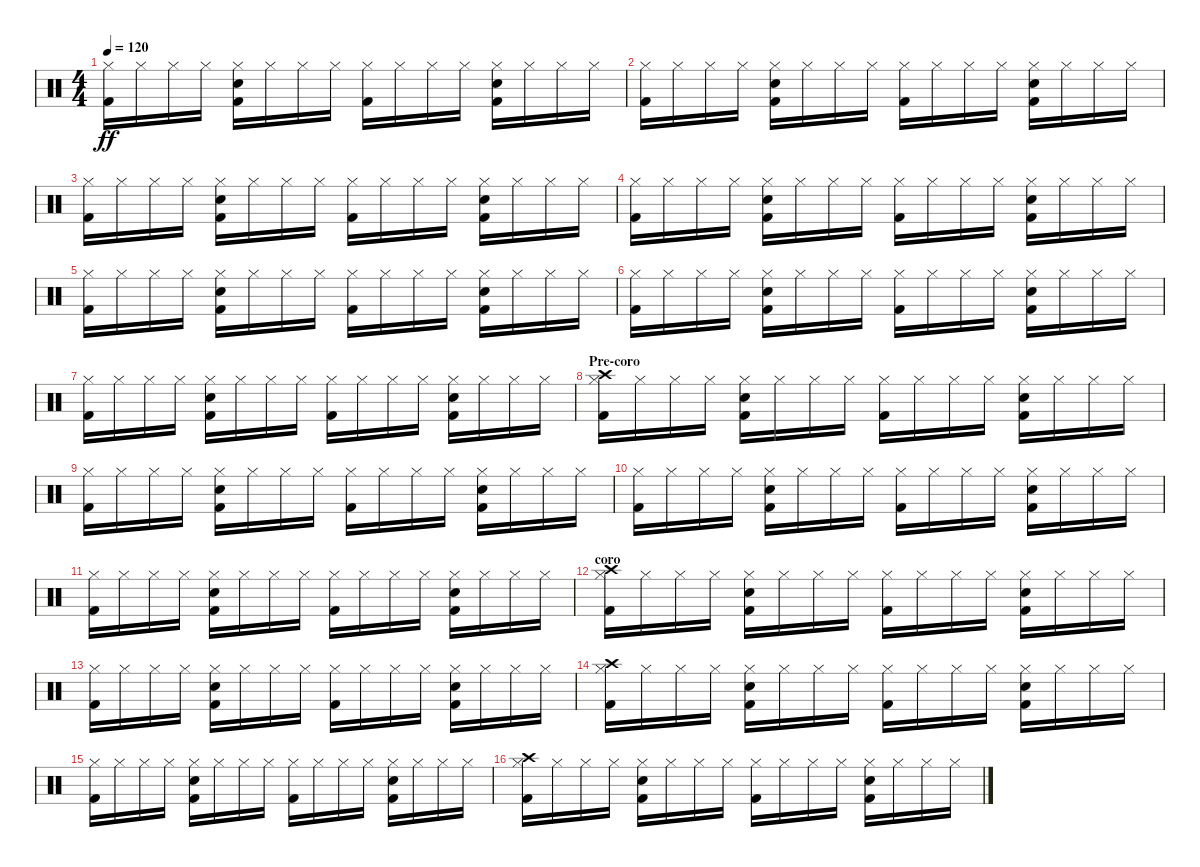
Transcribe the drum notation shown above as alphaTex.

\track "" {instrument percussion}
\staff {score}
\articulation defaults
\ts (4 4)
\tempo 120
\clef neutral
\ks c
("Hi-Hat (closed)" "Kick (hit) 2").16{dy ff} "Hi-Hat (closed)".16 "Hi-Hat (closed)".16 "Hi-Hat (closed)".16 ("Hi-Hat (closed)" "Electric Snare (hit)" "Kick (hit) 2").16 "Hi-Hat (closed)".16 "Hi-Hat (closed)".16 "Hi-Hat (closed)".16 ("Hi-Hat (closed)" "Kick (hit) 2").16 "Hi-Hat (closed)".16 "Hi-Hat (closed)".16 "Hi-Hat (closed)".16 ("Hi-Hat (closed)" "Electric Snare (hit)" "Kick (hit) 2").16 "Hi-Hat (closed)".16 "Hi-Hat (closed)".16 "Hi-Hat (closed)".16 |
("Hi-Hat (closed)" "Kick (hit) 2").16 "Hi-Hat (closed)".16 "Hi-Hat (closed)".16 "Hi-Hat (closed)".16 ("Hi-Hat (closed)" "Electric Snare (hit)" "Kick (hit) 2").16 "Hi-Hat (closed)".16 "Hi-Hat (closed)".16 "Hi-Hat (closed)".16 ("Hi-Hat (closed)" "Kick (hit) 2").16 "Hi-Hat (closed)".16 "Hi-Hat (closed)".16 "Hi-Hat (closed)".16 ("Hi-Hat (closed)" "Electric Snare (hit)" "Kick (hit) 2").16 "Hi-Hat (closed)".16 "Hi-Hat (closed)".16 "Hi-Hat (closed)".16 |
("Hi-Hat (closed)" "Kick (hit) 2").16 "Hi-Hat (closed)".16 "Hi-Hat (closed)".16 "Hi-Hat (closed)".16 ("Hi-Hat (closed)" "Electric Snare (hit)" "Kick (hit) 2").16 "Hi-Hat (closed)".16 "Hi-Hat (closed)".16 "Hi-Hat (closed)".16 ("Hi-Hat (closed)" "Kick (hit) 2").16 "Hi-Hat (closed)".16 "Hi-Hat (closed)".16 "Hi-Hat (closed)".16 ("Hi-Hat (closed)" "Electric Snare (hit)" "Kick (hit) 2").16 "Hi-Hat (closed)".16 "Hi-Hat (closed)".16 "Hi-Hat (closed)".16 |
("Hi-Hat (closed)" "Kick (hit) 2").16 "Hi-Hat (closed)".16 "Hi-Hat (closed)".16 "Hi-Hat (closed)".16 ("Hi-Hat (closed)" "Electric Snare (hit)" "Kick (hit) 2").16 "Hi-Hat (closed)".16 "Hi-Hat (closed)".16 "Hi-Hat (closed)".16 ("Hi-Hat (closed)" "Kick (hit) 2").16 "Hi-Hat (closed)".16 "Hi-Hat (closed)".16 "Hi-Hat (closed)".16 ("Hi-Hat (closed)" "Electric Snare (hit)" "Kick (hit) 2").16 "Hi-Hat (closed)".16 "Hi-Hat (closed)".16 "Hi-Hat (closed)".16 |
("Hi-Hat (closed)" "Kick (hit) 2").16 "Hi-Hat (closed)".16 "Hi-Hat (closed)".16 "Hi-Hat (closed)".16 ("Hi-Hat (closed)" "Electric Snare (hit)" "Kick (hit) 2").16 "Hi-Hat (closed)".16 "Hi-Hat (closed)".16 "Hi-Hat (closed)".16 ("Hi-Hat (closed)" "Kick (hit) 2").16 "Hi-Hat (closed)".16 "Hi-Hat (closed)".16 "Hi-Hat (closed)".16 ("Hi-Hat (closed)" "Electric Snare (hit)" "Kick (hit) 2").16 "Hi-Hat (closed)".16 "Hi-Hat (closed)".16 "Hi-Hat (closed)".16 |
("Hi-Hat (closed)" "Kick (hit) 2").16 "Hi-Hat (closed)".16 "Hi-Hat (closed)".16 "Hi-Hat (closed)".16 ("Hi-Hat (closed)" "Electric Snare (hit)" "Kick (hit) 2").16 "Hi-Hat (closed)".16 "Hi-Hat (closed)".16 "Hi-Hat (closed)".16 ("Hi-Hat (closed)" "Kick (hit) 2").16 "Hi-Hat (closed)".16 "Hi-Hat (closed)".16 "Hi-Hat (closed)".16 ("Hi-Hat (closed)" "Electric Snare (hit)" "Kick (hit) 2").16 "Hi-Hat (closed)".16 "Hi-Hat (closed)".16 "Hi-Hat (closed)".16 |
("Hi-Hat (closed)" "Kick (hit) 2").16 "Hi-Hat (closed)".16 "Hi-Hat (closed)".16 "Hi-Hat (closed)".16 ("Hi-Hat (closed)" "Electric Snare (hit)" "Kick (hit) 2").16 "Hi-Hat (closed)".16 "Hi-Hat (closed)".16 "Hi-Hat (closed)".16 ("Hi-Hat (closed)" "Kick (hit) 2").16 "Hi-Hat (closed)".16 "Hi-Hat (closed)".16 "Hi-Hat (closed)".16 ("Hi-Hat (closed)" "Electric Snare (hit)" "Kick (hit) 2").16 "Hi-Hat (closed)".16 "Hi-Hat (closed)".16 "Hi-Hat (closed)".16 |
\section ("" "Pre-coro")
("Crash high (hit)" "Hi-Hat (closed)" "Kick (hit) 2").16 "Hi-Hat (closed)".16 "Hi-Hat (closed)".16 "Hi-Hat (closed)".16 ("Hi-Hat (closed)" "Electric Snare (hit)" "Kick (hit) 2").16 "Hi-Hat (closed)".16 "Hi-Hat (closed)".16 "Hi-Hat (closed)".16 ("Hi-Hat (closed)" "Kick (hit) 2").16 "Hi-Hat (closed)".16 "Hi-Hat (closed)".16 "Hi-Hat (closed)".16 ("Hi-Hat (closed)" "Electric Snare (hit)" "Kick (hit) 2").16 "Hi-Hat (closed)".16 "Hi-Hat (closed)".16 "Hi-Hat (closed)".16 |
("Hi-Hat (closed)" "Kick (hit) 2").16 "Hi-Hat (closed)".16 "Hi-Hat (closed)".16 "Hi-Hat (closed)".16 ("Hi-Hat (closed)" "Electric Snare (hit)" "Kick (hit) 2").16 "Hi-Hat (closed)".16 "Hi-Hat (closed)".16 "Hi-Hat (closed)".16 ("Hi-Hat (closed)" "Kick (hit) 2").16 "Hi-Hat (closed)".16 "Hi-Hat (closed)".16 "Hi-Hat (closed)".16 ("Hi-Hat (closed)" "Electric Snare (hit)" "Kick (hit) 2").16 "Hi-Hat (closed)".16 "Hi-Hat (closed)".16 "Hi-Hat (closed)".16 |
("Hi-Hat (closed)" "Kick (hit) 2").16 "Hi-Hat (closed)".16 "Hi-Hat (closed)".16 "Hi-Hat (closed)".16 ("Hi-Hat (closed)" "Electric Snare (hit)" "Kick (hit) 2").16 "Hi-Hat (closed)".16 "Hi-Hat (closed)".16 "Hi-Hat (closed)".16 ("Hi-Hat (closed)" "Kick (hit) 2").16 "Hi-Hat (closed)".16 "Hi-Hat (closed)".16 "Hi-Hat (closed)".16 ("Hi-Hat (closed)" "Electric Snare (hit)" "Kick (hit) 2").16 "Hi-Hat (closed)".16 "Hi-Hat (closed)".16 "Hi-Hat (closed)".16 |
("Hi-Hat (closed)" "Kick (hit) 2").16 "Hi-Hat (closed)".16 "Hi-Hat (closed)".16 "Hi-Hat (closed)".16 ("Hi-Hat (closed)" "Electric Snare (hit)" "Kick (hit) 2").16 "Hi-Hat (closed)".16 "Hi-Hat (closed)".16 "Hi-Hat (closed)".16 ("Hi-Hat (closed)" "Kick (hit) 2").16 "Hi-Hat (closed)".16 "Hi-Hat (closed)".16 "Hi-Hat (closed)".16 ("Hi-Hat (closed)" "Electric Snare (hit)" "Kick (hit) 2").16 "Hi-Hat (closed)".16 "Hi-Hat (closed)".16 "Hi-Hat (closed)".16 |
\section ("" "coro")
("Crash high (hit)" "Hi-Hat (closed)" "Kick (hit) 2").16 "Hi-Hat (closed)".16 "Hi-Hat (closed)".16 "Hi-Hat (closed)".16 ("Hi-Hat (closed)" "Electric Snare (hit)" "Kick (hit) 2").16 "Hi-Hat (closed)".16 "Hi-Hat (closed)".16 "Hi-Hat (closed)".16 ("Hi-Hat (closed)" "Kick (hit) 2").16 "Hi-Hat (closed)".16 "Hi-Hat (closed)".16 "Hi-Hat (closed)".16 ("Hi-Hat (closed)" "Electric Snare (hit)" "Kick (hit) 2").16 "Hi-Hat (closed)".16 "Hi-Hat (closed)".16 "Hi-Hat (closed)".16 |
("Hi-Hat (closed)" "Kick (hit) 2").16 "Hi-Hat (closed)".16 "Hi-Hat (closed)".16 "Hi-Hat (closed)".16 ("Hi-Hat (closed)" "Electric Snare (hit)" "Kick (hit) 2").16 "Hi-Hat (closed)".16 "Hi-Hat (closed)".16 "Hi-Hat (closed)".16 ("Hi-Hat (closed)" "Kick (hit) 2").16 "Hi-Hat (closed)".16 "Hi-Hat (closed)".16 "Hi-Hat (closed)".16 ("Hi-Hat (closed)" "Electric Snare (hit)" "Kick (hit) 2").16 "Hi-Hat (closed)".16 "Hi-Hat (closed)".16 "Hi-Hat (closed)".16 |
("Crash high (hit)" "Hi-Hat (closed)" "Kick (hit) 2").16 "Hi-Hat (closed)".16 "Hi-Hat (closed)".16 "Hi-Hat (closed)".16 ("Hi-Hat (closed)" "Electric Snare (hit)" "Kick (hit) 2").16 "Hi-Hat (closed)".16 "Hi-Hat (closed)".16 "Hi-Hat (closed)".16 ("Hi-Hat (closed)" "Kick (hit) 2").16 "Hi-Hat (closed)".16 "Hi-Hat (closed)".16 "Hi-Hat (closed)".16 ("Hi-Hat (closed)" "Electric Snare (hit)" "Kick (hit) 2").16 "Hi-Hat (closed)".16 "Hi-Hat (closed)".16 "Hi-Hat (closed)".16 |
("Hi-Hat (closed)" "Kick (hit) 2").16 "Hi-Hat (closed)".16 "Hi-Hat (closed)".16 "Hi-Hat (closed)".16 ("Hi-Hat (closed)" "Electric Snare (hit)" "Kick (hit) 2").16 "Hi-Hat (closed)".16 "Hi-Hat (closed)".16 "Hi-Hat (closed)".16 ("Hi-Hat (closed)" "Kick (hit) 2").16 "Hi-Hat (closed)".16 "Hi-Hat (closed)".16 "Hi-Hat (closed)".16 ("Hi-Hat (closed)" "Electric Snare (hit)" "Kick (hit) 2").16 "Hi-Hat (closed)".16 "Hi-Hat (closed)".16 "Hi-Hat (closed)".16 |
("Crash high (hit)" "Hi-Hat (closed)" "Kick (hit) 2").16 "Hi-Hat (closed)".16 "Hi-Hat (closed)".16 "Hi-Hat (closed)".16 ("Hi-Hat (closed)" "Electric Snare (hit)" "Kick (hit) 2").16 "Hi-Hat (closed)".16 "Hi-Hat (closed)".16 "Hi-Hat (closed)".16 ("Hi-Hat (closed)" "Kick (hit) 2").16 "Hi-Hat (closed)".16 "Hi-Hat (closed)".16 "Hi-Hat (closed)".16 ("Hi-Hat (closed)" "Electric Snare (hit)" "Kick (hit) 2").16 "Hi-Hat (closed)".16 "Hi-Hat (closed)".16 "Hi-Hat (closed)".16
